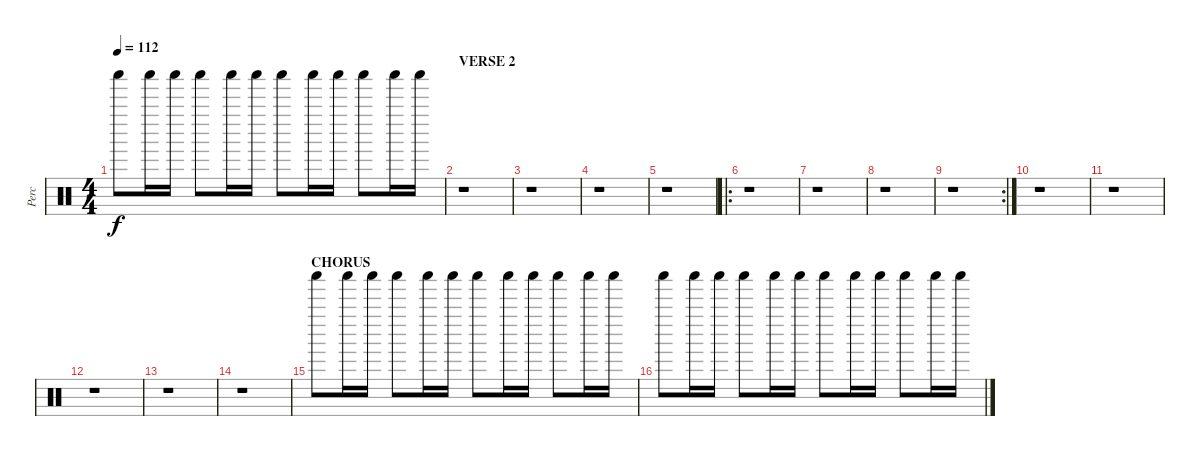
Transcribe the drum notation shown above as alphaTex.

\track ("Perc" "Perc") {instrument percussion}
\staff {score}
\articulation defaults
\ts (4 4)
\tempo 112
\clef neutral
\ks c "Shaker (hit)".8{dy f} "Shaker (hit)".16 "Shaker (hit)".16 "Shaker (hit)".8 "Shaker (hit)".16 "Shaker (hit)".16 "Shaker (hit)".8 "Shaker (hit)".16 "Shaker (hit)".16 "Shaker (hit)".8 "Shaker (hit)".16 "Shaker (hit)".16
|
\section ("" "VERSE 2")
r.1 |
r.1 |
r.1 |
r.1 |
\ro
r.1 |
r.1 |
r.1 |
\rc 2
r.1 |
r.1 |
r.1 |
r.1 |
r.1 |
r.1 |
\section ("" "CHORUS")
"Shaker (hit)".8 "Shaker (hit)".16 "Shaker (hit)".16 "Shaker (hit)".8 "Shaker (hit)".16 "Shaker (hit)".16 "Shaker (hit)".8 "Shaker (hit)".16 "Shaker (hit)".16 "Shaker (hit)".8 "Shaker (hit)".16 "Shaker (hit)".16 |
"Shaker (hit)".8 "Shaker (hit)".16 "Shaker (hit)".16 "Shaker (hit)".8 "Shaker (hit)".16 "Shaker (hit)".16 "Shaker (hit)".8 "Shaker (hit)".16 "Shaker (hit)".16 "Shaker (hit)".8 "Shaker (hit)".16 "Shaker (hit)".16
